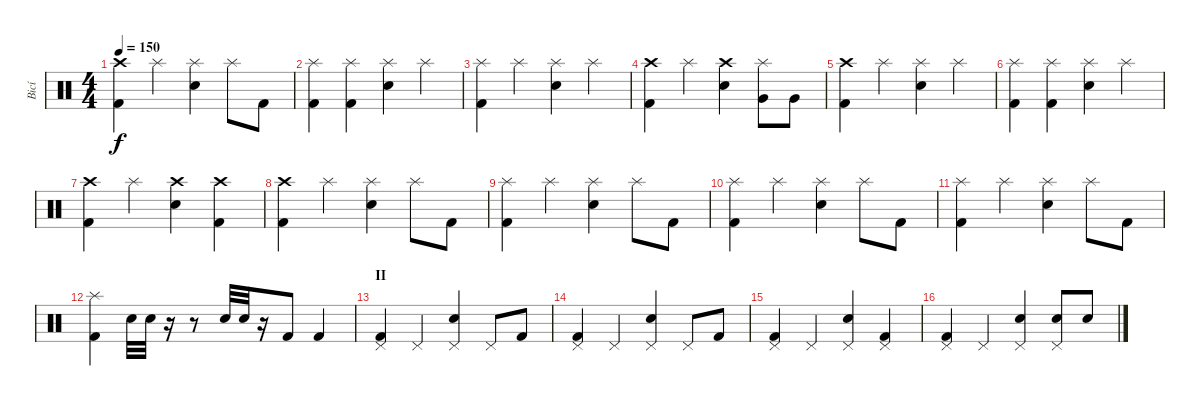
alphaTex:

\track ("Bicí" "Bicí") {instrument percussion}
\staff {score}
\articulation defaults
\ts (4 4)
\tempo 150
\clef neutral
\ks c
("Crash high (hit)" "Kick (hit) 2").4{dy f} "Splash (hit)".4 ("Splash (hit)" "Electric Snare (hit)").4 "Splash (hit)".8 "Kick (hit) 2".8 |
("Splash (hit)" "Kick (hit) 2").4 ("Splash (hit)" "Kick (hit) 2").4 ("Splash (hit)" "Electric Snare (hit)").4 "Splash (hit)".4 |
("Splash (hit)" "Kick (hit) 2").4 "Splash (hit)".4 ("Splash (hit)" "Electric Snare (hit)").4 "Splash (hit)".4 |
("Crash high (hit)" "Kick (hit) 2").4 "Splash (hit)".4 ("Crash high (hit)" "Electric Snare (hit)").4 ("Splash (hit)" "Very Low Tom (hit)").8 "Very Low Tom (hit)".8 |
("Crash high (hit)" "Kick (hit) 2").4 "Splash (hit)".4 ("Splash (hit)" "Electric Snare (hit)").4 "Splash (hit)".4 |
("Splash (hit)" "Kick (hit) 2").4 ("Splash (hit)" "Kick (hit) 2").4 ("Splash (hit)" "Electric Snare (hit)").4 "Splash (hit)".4 |
("Crash high (hit)" "Kick (hit) 2").4 "Splash (hit)".4 ("Crash high (hit)" "Electric Snare (hit)").4 ("Crash high (hit)" "Kick (hit) 2").4 |
("Crash high (hit)" "Kick (hit) 2").4 "Splash (hit)".4 ("Splash (hit)" "Electric Snare (hit)").4 "Splash (hit)".8 "Kick (hit) 2".8 |
("Splash (hit)" "Kick (hit) 2").4 "Splash (hit)".4 ("Splash (hit)" "Electric Snare (hit)").4 "Splash (hit)".8 "Kick (hit) 2".8 |
("Splash (hit)" "Kick (hit) 2").4 "Splash (hit)".4 ("Splash (hit)" "Electric Snare (hit)").4 "Splash (hit)".8 "Kick (hit) 2".8 |
("Splash (hit)" "Kick (hit) 2").4 "Splash (hit)".4 ("Splash (hit)" "Electric Snare (hit)").4 "Splash (hit)".8 "Kick (hit) 2".8 |
("Splash (hit)" "Kick (hit) 2").4 "Electric Snare (hit)".32 "Electric Snare (hit)".32 r.16 r.8 "Electric Snare (hit)".32 "Electric Snare (hit)".32 r.16 "Kick (hit) 2".8 "Kick (hit) 2".4 |
\section ("" "II")
("Pedal Hi-Hat (hit)" "Kick (hit) 2").4 "Pedal Hi-Hat (hit)".4 ("Pedal Hi-Hat (hit)" "Electric Snare (hit)").4 "Pedal Hi-Hat (hit)".8 "Kick (hit) 2".8 |
("Pedal Hi-Hat (hit)" "Kick (hit) 2").4 "Pedal Hi-Hat (hit)".4 ("Pedal Hi-Hat (hit)" "Electric Snare (hit)").4 "Pedal Hi-Hat (hit)".8 "Kick (hit) 2".8 |
("Pedal Hi-Hat (hit)" "Kick (hit) 2").4 "Pedal Hi-Hat (hit)".4 ("Pedal Hi-Hat (hit)" "Electric Snare (hit)").4 ("Pedal Hi-Hat (hit)" "Kick (hit) 2").4 |
("Pedal Hi-Hat (hit)" "Kick (hit) 2").4 "Pedal Hi-Hat (hit)".4 ("Pedal Hi-Hat (hit)" "Electric Snare (hit)").4 ("Pedal Hi-Hat (hit)" "Electric Snare (hit)").8 "Electric Snare (hit)".8
